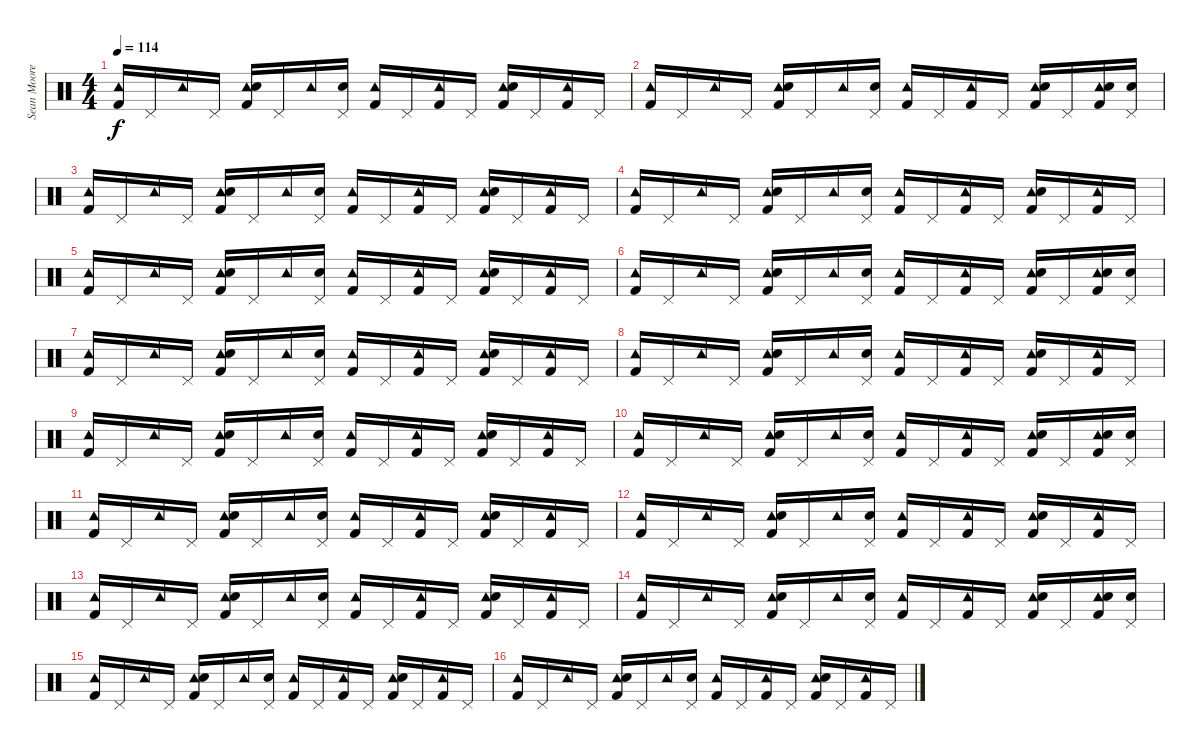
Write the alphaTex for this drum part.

\track ("Sean Moore" "Sean Moore") {instrument percussion}
\staff {score}
\articulation defaults
\ts (4 4)
\tempo 114
\clef neutral
\ks c
("Tambourine (hit)" "Kick (hit) 2").16{dy f} "Pedal Hi-Hat (hit)".16 "Tambourine (hit)".16 "Pedal Hi-Hat (hit)".16 ("Tambourine (hit)" "Snare (hit) 2" "Kick (hit) 2").16 "Pedal Hi-Hat (hit)".16 "Tambourine (hit)".16 ("Snare (hit) 2" "Pedal Hi-Hat (hit)").16 ("Tambourine (hit)" "Kick (hit) 2").16 "Pedal Hi-Hat (hit)".16 ("Tambourine (hit)" "Kick (hit) 2").16 "Pedal Hi-Hat (hit)".16 ("Tambourine (hit)" "Snare (hit) 2" "Kick (hit) 2").16 "Pedal Hi-Hat (hit)".16 ("Tambourine (hit)" "Kick (hit) 2").16 "Pedal Hi-Hat (hit)".16 |
("Tambourine (hit)" "Kick (hit) 2").16 "Pedal Hi-Hat (hit)".16 "Tambourine (hit)".16 "Pedal Hi-Hat (hit)".16 ("Tambourine (hit)" "Snare (hit) 2" "Kick (hit) 2").16 "Pedal Hi-Hat (hit)".16 "Tambourine (hit)".16 ("Snare (hit) 2" "Pedal Hi-Hat (hit)").16 ("Tambourine (hit)" "Kick (hit) 2").16 "Pedal Hi-Hat (hit)".16 ("Tambourine (hit)" "Kick (hit) 2").16 "Pedal Hi-Hat (hit)".16 ("Tambourine (hit)" "Snare (hit) 2" "Kick (hit) 2").16 "Pedal Hi-Hat (hit)".16 ("Tambourine (hit)" "Snare (hit) 2" "Kick (hit) 2").16 ("Snare (hit) 2" "Pedal Hi-Hat (hit)").16 |
("Tambourine (hit)" "Kick (hit) 2").16 "Pedal Hi-Hat (hit)".16 "Tambourine (hit)".16 "Pedal Hi-Hat (hit)".16 ("Tambourine (hit)" "Snare (hit) 2" "Kick (hit) 2").16 "Pedal Hi-Hat (hit)".16 "Tambourine (hit)".16 ("Snare (hit) 2" "Pedal Hi-Hat (hit)").16 ("Tambourine (hit)" "Kick (hit) 2").16 "Pedal Hi-Hat (hit)".16 ("Tambourine (hit)" "Kick (hit) 2").16 "Pedal Hi-Hat (hit)".16 ("Tambourine (hit)" "Snare (hit) 2" "Kick (hit) 2").16 "Pedal Hi-Hat (hit)".16 ("Tambourine (hit)" "Kick (hit) 2").16 "Pedal Hi-Hat (hit)".16 |
("Tambourine (hit)" "Kick (hit) 2").16 "Pedal Hi-Hat (hit)".16 "Tambourine (hit)".16 "Pedal Hi-Hat (hit)".16 ("Tambourine (hit)" "Snare (hit) 2" "Kick (hit) 2").16 "Pedal Hi-Hat (hit)".16 "Tambourine (hit)".16 ("Snare (hit) 2" "Pedal Hi-Hat (hit)").16 ("Tambourine (hit)" "Kick (hit) 2").16 "Pedal Hi-Hat (hit)".16 ("Tambourine (hit)" "Kick (hit) 2").16 "Pedal Hi-Hat (hit)".16 ("Tambourine (hit)" "Snare (hit) 2" "Kick (hit) 2").16 "Pedal Hi-Hat (hit)".16 ("Tambourine (hit)" "Kick (hit) 2").16 "Pedal Hi-Hat (hit)".16 |
("Tambourine (hit)" "Kick (hit) 2").16 "Pedal Hi-Hat (hit)".16 "Tambourine (hit)".16 "Pedal Hi-Hat (hit)".16 ("Tambourine (hit)" "Snare (hit) 2" "Kick (hit) 2").16 "Pedal Hi-Hat (hit)".16 "Tambourine (hit)".16 ("Snare (hit) 2" "Pedal Hi-Hat (hit)").16 ("Tambourine (hit)" "Kick (hit) 2").16 "Pedal Hi-Hat (hit)".16 ("Tambourine (hit)" "Kick (hit) 2").16 "Pedal Hi-Hat (hit)".16 ("Tambourine (hit)" "Snare (hit) 2" "Kick (hit) 2").16 "Pedal Hi-Hat (hit)".16 ("Tambourine (hit)" "Kick (hit) 2").16 "Pedal Hi-Hat (hit)".16 |
("Tambourine (hit)" "Kick (hit) 2").16 "Pedal Hi-Hat (hit)".16 "Tambourine (hit)".16 "Pedal Hi-Hat (hit)".16 ("Tambourine (hit)" "Snare (hit) 2" "Kick (hit) 2").16 "Pedal Hi-Hat (hit)".16 "Tambourine (hit)".16 ("Snare (hit) 2" "Pedal Hi-Hat (hit)").16 ("Tambourine (hit)" "Kick (hit) 2").16 "Pedal Hi-Hat (hit)".16 ("Tambourine (hit)" "Kick (hit) 2").16 "Pedal Hi-Hat (hit)".16 ("Tambourine (hit)" "Snare (hit) 2" "Kick (hit) 2").16 "Pedal Hi-Hat (hit)".16 ("Tambourine (hit)" "Snare (hit) 2" "Kick (hit) 2").16 ("Snare (hit) 2" "Pedal Hi-Hat (hit)").16 |
("Tambourine (hit)" "Kick (hit) 2").16 "Pedal Hi-Hat (hit)".16 "Tambourine (hit)".16 "Pedal Hi-Hat (hit)".16 ("Tambourine (hit)" "Snare (hit) 2" "Kick (hit) 2").16 "Pedal Hi-Hat (hit)".16 "Tambourine (hit)".16 ("Snare (hit) 2" "Pedal Hi-Hat (hit)").16 ("Tambourine (hit)" "Kick (hit) 2").16 "Pedal Hi-Hat (hit)".16 ("Tambourine (hit)" "Kick (hit) 2").16 "Pedal Hi-Hat (hit)".16 ("Tambourine (hit)" "Snare (hit) 2" "Kick (hit) 2").16 "Pedal Hi-Hat (hit)".16 ("Tambourine (hit)" "Kick (hit) 2").16 "Pedal Hi-Hat (hit)".16 |
("Tambourine (hit)" "Kick (hit) 2").16 "Pedal Hi-Hat (hit)".16 "Tambourine (hit)".16 "Pedal Hi-Hat (hit)".16 ("Tambourine (hit)" "Snare (hit) 2" "Kick (hit) 2").16 "Pedal Hi-Hat (hit)".16 "Tambourine (hit)".16 ("Snare (hit) 2" "Pedal Hi-Hat (hit)").16 ("Tambourine (hit)" "Kick (hit) 2").16 "Pedal Hi-Hat (hit)".16 ("Tambourine (hit)" "Kick (hit) 2").16 "Pedal Hi-Hat (hit)".16 ("Tambourine (hit)" "Snare (hit) 2" "Kick (hit) 2").16 "Pedal Hi-Hat (hit)".16 ("Tambourine (hit)" "Kick (hit) 2").16 "Pedal Hi-Hat (hit)".16 |
("Tambourine (hit)" "Kick (hit) 2").16 "Pedal Hi-Hat (hit)".16 "Tambourine (hit)".16 "Pedal Hi-Hat (hit)".16 ("Tambourine (hit)" "Snare (hit) 2" "Kick (hit) 2").16 "Pedal Hi-Hat (hit)".16 "Tambourine (hit)".16 ("Snare (hit) 2" "Pedal Hi-Hat (hit)").16 ("Tambourine (hit)" "Kick (hit) 2").16 "Pedal Hi-Hat (hit)".16 ("Tambourine (hit)" "Kick (hit) 2").16 "Pedal Hi-Hat (hit)".16 ("Tambourine (hit)" "Snare (hit) 2" "Kick (hit) 2").16 "Pedal Hi-Hat (hit)".16 ("Tambourine (hit)" "Kick (hit) 2").16 "Pedal Hi-Hat (hit)".16 |
("Tambourine (hit)" "Kick (hit) 2").16 "Pedal Hi-Hat (hit)".16 "Tambourine (hit)".16 "Pedal Hi-Hat (hit)".16 ("Tambourine (hit)" "Snare (hit) 2" "Kick (hit) 2").16 "Pedal Hi-Hat (hit)".16 "Tambourine (hit)".16 ("Snare (hit) 2" "Pedal Hi-Hat (hit)").16 ("Tambourine (hit)" "Kick (hit) 2").16 "Pedal Hi-Hat (hit)".16 ("Tambourine (hit)" "Kick (hit) 2").16 "Pedal Hi-Hat (hit)".16 ("Tambourine (hit)" "Snare (hit) 2" "Kick (hit) 2").16 "Pedal Hi-Hat (hit)".16 ("Tambourine (hit)" "Snare (hit) 2" "Kick (hit) 2").16 ("Snare (hit) 2" "Pedal Hi-Hat (hit)").16 |
("Tambourine (hit)" "Kick (hit) 2").16 "Pedal Hi-Hat (hit)".16 "Tambourine (hit)".16 "Pedal Hi-Hat (hit)".16 ("Tambourine (hit)" "Snare (hit) 2" "Kick (hit) 2").16 "Pedal Hi-Hat (hit)".16 "Tambourine (hit)".16 ("Snare (hit) 2" "Pedal Hi-Hat (hit)").16 ("Tambourine (hit)" "Kick (hit) 2").16 "Pedal Hi-Hat (hit)".16 ("Tambourine (hit)" "Kick (hit) 2").16 "Pedal Hi-Hat (hit)".16 ("Tambourine (hit)" "Snare (hit) 2" "Kick (hit) 2").16 "Pedal Hi-Hat (hit)".16 ("Tambourine (hit)" "Kick (hit) 2").16 "Pedal Hi-Hat (hit)".16 |
("Tambourine (hit)" "Kick (hit) 2").16 "Pedal Hi-Hat (hit)".16 "Tambourine (hit)".16 "Pedal Hi-Hat (hit)".16 ("Tambourine (hit)" "Snare (hit) 2" "Kick (hit) 2").16 "Pedal Hi-Hat (hit)".16 "Tambourine (hit)".16 ("Snare (hit) 2" "Pedal Hi-Hat (hit)").16 ("Tambourine (hit)" "Kick (hit) 2").16 "Pedal Hi-Hat (hit)".16 ("Tambourine (hit)" "Kick (hit) 2").16 "Pedal Hi-Hat (hit)".16 ("Tambourine (hit)" "Snare (hit) 2" "Kick (hit) 2").16 "Pedal Hi-Hat (hit)".16 ("Tambourine (hit)" "Kick (hit) 2").16 "Pedal Hi-Hat (hit)".16 |
("Tambourine (hit)" "Kick (hit) 2").16 "Pedal Hi-Hat (hit)".16 "Tambourine (hit)".16 "Pedal Hi-Hat (hit)".16 ("Tambourine (hit)" "Snare (hit) 2" "Kick (hit) 2").16 "Pedal Hi-Hat (hit)".16 "Tambourine (hit)".16 ("Snare (hit) 2" "Pedal Hi-Hat (hit)").16 ("Tambourine (hit)" "Kick (hit) 2").16 "Pedal Hi-Hat (hit)".16 ("Tambourine (hit)" "Kick (hit) 2").16 "Pedal Hi-Hat (hit)".16 ("Tambourine (hit)" "Snare (hit) 2" "Kick (hit) 2").16 "Pedal Hi-Hat (hit)".16 ("Tambourine (hit)" "Kick (hit) 2").16 "Pedal Hi-Hat (hit)".16 |
("Tambourine (hit)" "Kick (hit) 2").16 "Pedal Hi-Hat (hit)".16 "Tambourine (hit)".16 "Pedal Hi-Hat (hit)".16 ("Tambourine (hit)" "Snare (hit) 2" "Kick (hit) 2").16 "Pedal Hi-Hat (hit)".16 "Tambourine (hit)".16 ("Snare (hit) 2" "Pedal Hi-Hat (hit)").16 ("Tambourine (hit)" "Kick (hit) 2").16 "Pedal Hi-Hat (hit)".16 ("Tambourine (hit)" "Kick (hit) 2").16 "Pedal Hi-Hat (hit)".16 ("Tambourine (hit)" "Snare (hit) 2" "Kick (hit) 2").16 "Pedal Hi-Hat (hit)".16 ("Tambourine (hit)" "Snare (hit) 2" "Kick (hit) 2").16 ("Snare (hit) 2" "Pedal Hi-Hat (hit)").16 |
("Tambourine (hit)" "Kick (hit) 2").16 "Pedal Hi-Hat (hit)".16 "Tambourine (hit)".16 "Pedal Hi-Hat (hit)".16 ("Tambourine (hit)" "Snare (hit) 2" "Kick (hit) 2").16 "Pedal Hi-Hat (hit)".16 "Tambourine (hit)".16 ("Snare (hit) 2" "Pedal Hi-Hat (hit)").16 ("Tambourine (hit)" "Kick (hit) 2").16 "Pedal Hi-Hat (hit)".16 ("Tambourine (hit)" "Kick (hit) 2").16 "Pedal Hi-Hat (hit)".16 ("Tambourine (hit)" "Snare (hit) 2" "Kick (hit) 2").16 "Pedal Hi-Hat (hit)".16 ("Tambourine (hit)" "Kick (hit) 2").16 "Pedal Hi-Hat (hit)".16 |
("Tambourine (hit)" "Kick (hit) 2").16 "Pedal Hi-Hat (hit)".16 "Tambourine (hit)".16 "Pedal Hi-Hat (hit)".16 ("Tambourine (hit)" "Snare (hit) 2" "Kick (hit) 2").16 "Pedal Hi-Hat (hit)".16 "Tambourine (hit)".16 ("Snare (hit) 2" "Pedal Hi-Hat (hit)").16 ("Tambourine (hit)" "Kick (hit) 2").16 "Pedal Hi-Hat (hit)".16 ("Tambourine (hit)" "Kick (hit) 2").16 "Pedal Hi-Hat (hit)".16 ("Tambourine (hit)" "Snare (hit) 2" "Kick (hit) 2").16 "Pedal Hi-Hat (hit)".16 ("Tambourine (hit)" "Kick (hit) 2").16 "Pedal Hi-Hat (hit)".16
